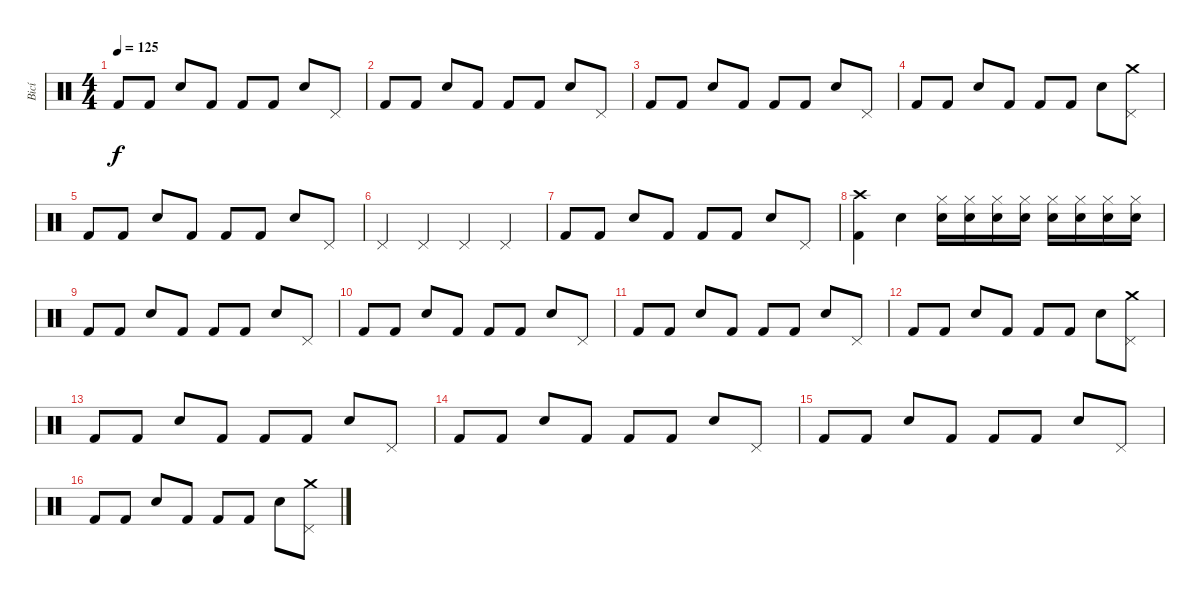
\track ("Bicí" "Bicí") {instrument percussion}
\staff {score}
\articulation defaults
\ts (4 4)
\tempo 125
\clef neutral
\ks c "Kick (hit) 2".8{dy f} "Kick (hit) 2".8 "Snare (hit) 2".8 "Kick (hit) 2".8 "Kick (hit) 2".8 "Kick (hit) 2".8 "Snare (hit) 2".8 "Pedal Hi-Hat (hit)".8
|
"Kick (hit) 2".8 "Kick (hit) 2".8 "Snare (hit) 2".8 "Kick (hit) 2".8 "Kick (hit) 2".8 "Kick (hit) 2".8 "Snare (hit) 2".8 "Pedal Hi-Hat (hit)".8 |
"Kick (hit) 2".8 "Kick (hit) 2".8 "Snare (hit) 2".8 "Kick (hit) 2".8 "Kick (hit) 2".8 "Kick (hit) 2".8 "Snare (hit) 2".8 "Pedal Hi-Hat (hit)".8 |
"Kick (hit) 2".8 "Kick (hit) 2".8 "Snare (hit) 2".8 "Kick (hit) 2".8 "Kick (hit) 2".8 "Kick (hit) 2".8 "Snare (hit) 2".8 ("Pedal Hi-Hat (hit)" "Crash medium (hit)").8 |
"Kick (hit) 2".8 "Kick (hit) 2".8 "Snare (hit) 2".8 "Kick (hit) 2".8 "Kick (hit) 2".8 "Kick (hit) 2".8 "Snare (hit) 2".8 "Pedal Hi-Hat (hit)".8 |
"Pedal Hi-Hat (hit)".4 "Pedal Hi-Hat (hit)".4 "Pedal Hi-Hat (hit)".4 "Pedal Hi-Hat (hit)".4 |
"Kick (hit) 2".8 "Kick (hit) 2".8 "Snare (hit) 2".8 "Kick (hit) 2".8 "Kick (hit) 2".8 "Kick (hit) 2".8 "Snare (hit) 2".8 "Pedal Hi-Hat (hit)".8 |
("Crash high (hit)" "Kick (hit) 2").4 "Snare (hit) 2".4 ("Snare (hit) 2" "Hi-Hat (closed)").16 ("Snare (hit) 2" "Hi-Hat (closed)").16 ("Snare (hit) 2" "Hi-Hat (closed)").16 ("Snare (hit) 2" "Hi-Hat (closed)").16 ("Snare (hit) 2" "Hi-Hat (closed)").16 ("Snare (hit) 2" "Hi-Hat (closed)").16 ("Snare (hit) 2" "Hi-Hat (closed)").16 ("Snare (hit) 2" "Hi-Hat (closed)").16 |
"Kick (hit) 2".8 "Kick (hit) 2".8 "Snare (hit) 2".8 "Kick (hit) 2".8 "Kick (hit) 2".8 "Kick (hit) 2".8 "Snare (hit) 2".8 "Pedal Hi-Hat (hit)".8 |
"Kick (hit) 2".8 "Kick (hit) 2".8 "Snare (hit) 2".8 "Kick (hit) 2".8 "Kick (hit) 2".8 "Kick (hit) 2".8 "Snare (hit) 2".8 "Pedal Hi-Hat (hit)".8 |
"Kick (hit) 2".8 "Kick (hit) 2".8 "Snare (hit) 2".8 "Kick (hit) 2".8 "Kick (hit) 2".8 "Kick (hit) 2".8 "Snare (hit) 2".8 "Pedal Hi-Hat (hit)".8 |
"Kick (hit) 2".8 "Kick (hit) 2".8 "Snare (hit) 2".8 "Kick (hit) 2".8 "Kick (hit) 2".8 "Kick (hit) 2".8 "Snare (hit) 2".8 ("Pedal Hi-Hat (hit)" "Crash medium (hit)").8 |
"Kick (hit) 2".8 "Kick (hit) 2".8 "Snare (hit) 2".8 "Kick (hit) 2".8 "Kick (hit) 2".8 "Kick (hit) 2".8 "Snare (hit) 2".8 "Pedal Hi-Hat (hit)".8 |
"Kick (hit) 2".8 "Kick (hit) 2".8 "Snare (hit) 2".8 "Kick (hit) 2".8 "Kick (hit) 2".8 "Kick (hit) 2".8 "Snare (hit) 2".8 "Pedal Hi-Hat (hit)".8 |
"Kick (hit) 2".8 "Kick (hit) 2".8 "Snare (hit) 2".8 "Kick (hit) 2".8 "Kick (hit) 2".8 "Kick (hit) 2".8 "Snare (hit) 2".8 "Pedal Hi-Hat (hit)".8 |
"Kick (hit) 2".8 "Kick (hit) 2".8 "Snare (hit) 2".8 "Kick (hit) 2".8 "Kick (hit) 2".8 "Kick (hit) 2".8 "Snare (hit) 2".8 ("Pedal Hi-Hat (hit)" "Crash medium (hit)").8
